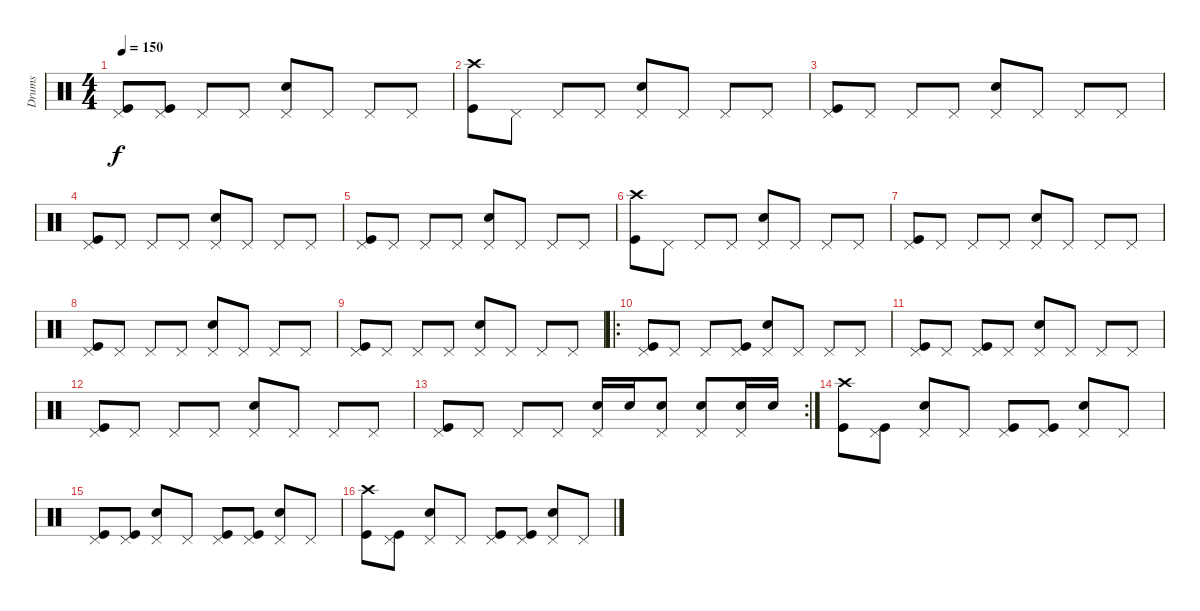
\track ("Drums" "Drums") {instrument percussion}
\staff {score}
\articulation defaults
\ts (4 4)
\tempo 150
\clef neutral
\ks c
("Pedal Hi-Hat (hit)" "Kick (hit)").8{dy f} ("Pedal Hi-Hat (hit)" "Kick (hit)").8 "Pedal Hi-Hat (hit)".8 "Pedal Hi-Hat (hit)".8 ("Pedal Hi-Hat (hit)" "Snare (hit) 2").8 "Pedal Hi-Hat (hit)".8 "Pedal Hi-Hat (hit)".8 "Pedal Hi-Hat (hit)".8 |
("Crash high (hit)" "Kick (hit)").8 "Pedal Hi-Hat (hit)".8 "Pedal Hi-Hat (hit)".8 "Pedal Hi-Hat (hit)".8 ("Pedal Hi-Hat (hit)" "Snare (hit) 2").8 "Pedal Hi-Hat (hit)".8 "Pedal Hi-Hat (hit)".8 "Pedal Hi-Hat (hit)".8 |
("Pedal Hi-Hat (hit)" "Kick (hit)").8 "Pedal Hi-Hat (hit)".8 "Pedal Hi-Hat (hit)".8 "Pedal Hi-Hat (hit)".8 ("Pedal Hi-Hat (hit)" "Snare (hit) 2").8 "Pedal Hi-Hat (hit)".8 "Pedal Hi-Hat (hit)".8 "Pedal Hi-Hat (hit)".8 |
("Pedal Hi-Hat (hit)" "Kick (hit)").8 "Pedal Hi-Hat (hit)".8 "Pedal Hi-Hat (hit)".8 "Pedal Hi-Hat (hit)".8 ("Pedal Hi-Hat (hit)" "Snare (hit) 2").8 "Pedal Hi-Hat (hit)".8 "Pedal Hi-Hat (hit)".8 "Pedal Hi-Hat (hit)".8 |
("Pedal Hi-Hat (hit)" "Kick (hit)").8 "Pedal Hi-Hat (hit)".8 "Pedal Hi-Hat (hit)".8 "Pedal Hi-Hat (hit)".8 ("Pedal Hi-Hat (hit)" "Snare (hit) 2").8 "Pedal Hi-Hat (hit)".8 "Pedal Hi-Hat (hit)".8 "Pedal Hi-Hat (hit)".8 |
("Crash high (hit)" "Kick (hit)").8 "Pedal Hi-Hat (hit)".8 "Pedal Hi-Hat (hit)".8 "Pedal Hi-Hat (hit)".8 ("Pedal Hi-Hat (hit)" "Snare (hit) 2").8 "Pedal Hi-Hat (hit)".8 "Pedal Hi-Hat (hit)".8 "Pedal Hi-Hat (hit)".8 |
("Pedal Hi-Hat (hit)" "Kick (hit)").8 "Pedal Hi-Hat (hit)".8 "Pedal Hi-Hat (hit)".8 "Pedal Hi-Hat (hit)".8 ("Pedal Hi-Hat (hit)" "Snare (hit) 2").8 "Pedal Hi-Hat (hit)".8 "Pedal Hi-Hat (hit)".8 "Pedal Hi-Hat (hit)".8 |
("Pedal Hi-Hat (hit)" "Kick (hit)").8 "Pedal Hi-Hat (hit)".8 "Pedal Hi-Hat (hit)".8 "Pedal Hi-Hat (hit)".8 ("Pedal Hi-Hat (hit)" "Snare (hit) 2").8 "Pedal Hi-Hat (hit)".8 "Pedal Hi-Hat (hit)".8 "Pedal Hi-Hat (hit)".8 |
("Pedal Hi-Hat (hit)" "Kick (hit)").8 "Pedal Hi-Hat (hit)".8 "Pedal Hi-Hat (hit)".8 "Pedal Hi-Hat (hit)".8 ("Pedal Hi-Hat (hit)" "Snare (hit) 2").8 "Pedal Hi-Hat (hit)".8 "Pedal Hi-Hat (hit)".8 "Pedal Hi-Hat (hit)".8 |
\ro
("Pedal Hi-Hat (hit)" "Kick (hit)").8 "Pedal Hi-Hat (hit)".8 "Pedal Hi-Hat (hit)".8 ("Pedal Hi-Hat (hit)" "Kick (hit)").8 ("Pedal Hi-Hat (hit)" "Snare (hit) 2").8 "Pedal Hi-Hat (hit)".8 "Pedal Hi-Hat (hit)".8 "Pedal Hi-Hat (hit)".8 |
("Pedal Hi-Hat (hit)" "Kick (hit)").8 "Pedal Hi-Hat (hit)".8 ("Pedal Hi-Hat (hit)" "Kick (hit)").8 "Pedal Hi-Hat (hit)".8 ("Pedal Hi-Hat (hit)" "Snare (hit) 2").8 "Pedal Hi-Hat (hit)".8 "Pedal Hi-Hat (hit)".8 "Pedal Hi-Hat (hit)".8 |
("Pedal Hi-Hat (hit)" "Kick (hit)").8 "Pedal Hi-Hat (hit)".8 "Pedal Hi-Hat (hit)".8 "Pedal Hi-Hat (hit)".8 ("Pedal Hi-Hat (hit)" "Snare (hit) 2").8 "Pedal Hi-Hat (hit)".8 "Pedal Hi-Hat (hit)".8 "Pedal Hi-Hat (hit)".8 |
\rc 2
("Pedal Hi-Hat (hit)" "Kick (hit)").8 "Pedal Hi-Hat (hit)".8 "Pedal Hi-Hat (hit)".8 "Pedal Hi-Hat (hit)".8 ("Pedal Hi-Hat (hit)" "Snare (hit) 2").16 "Snare (hit) 2".16 ("Pedal Hi-Hat (hit)" "Snare (hit) 2").8 ("Pedal Hi-Hat (hit)" "Snare (hit) 2").8 ("Pedal Hi-Hat (hit)" "Snare (hit) 2").16 "Snare (hit) 2".16 |
("Crash high (hit)" "Kick (hit)").8 ("Pedal Hi-Hat (hit)" "Kick (hit)").8 ("Pedal Hi-Hat (hit)" "Snare (hit) 2").8 "Pedal Hi-Hat (hit)".8 ("Pedal Hi-Hat (hit)" "Kick (hit)").8 ("Pedal Hi-Hat (hit)" "Kick (hit)").8 ("Pedal Hi-Hat (hit)" "Snare (hit) 2").8 "Pedal Hi-Hat (hit)".8 |
("Pedal Hi-Hat (hit)" "Kick (hit)").8 ("Pedal Hi-Hat (hit)" "Kick (hit)").8 ("Pedal Hi-Hat (hit)" "Snare (hit) 2").8 "Pedal Hi-Hat (hit)".8 ("Pedal Hi-Hat (hit)" "Kick (hit)").8 ("Pedal Hi-Hat (hit)" "Kick (hit)").8 ("Pedal Hi-Hat (hit)" "Snare (hit) 2").8 "Pedal Hi-Hat (hit)".8 |
("Crash high (hit)" "Kick (hit)").8 ("Pedal Hi-Hat (hit)" "Kick (hit)").8 ("Pedal Hi-Hat (hit)" "Snare (hit) 2").8 "Pedal Hi-Hat (hit)".8 ("Pedal Hi-Hat (hit)" "Kick (hit)").8 ("Pedal Hi-Hat (hit)" "Kick (hit)").8 ("Pedal Hi-Hat (hit)" "Snare (hit) 2").8 "Pedal Hi-Hat (hit)".8
